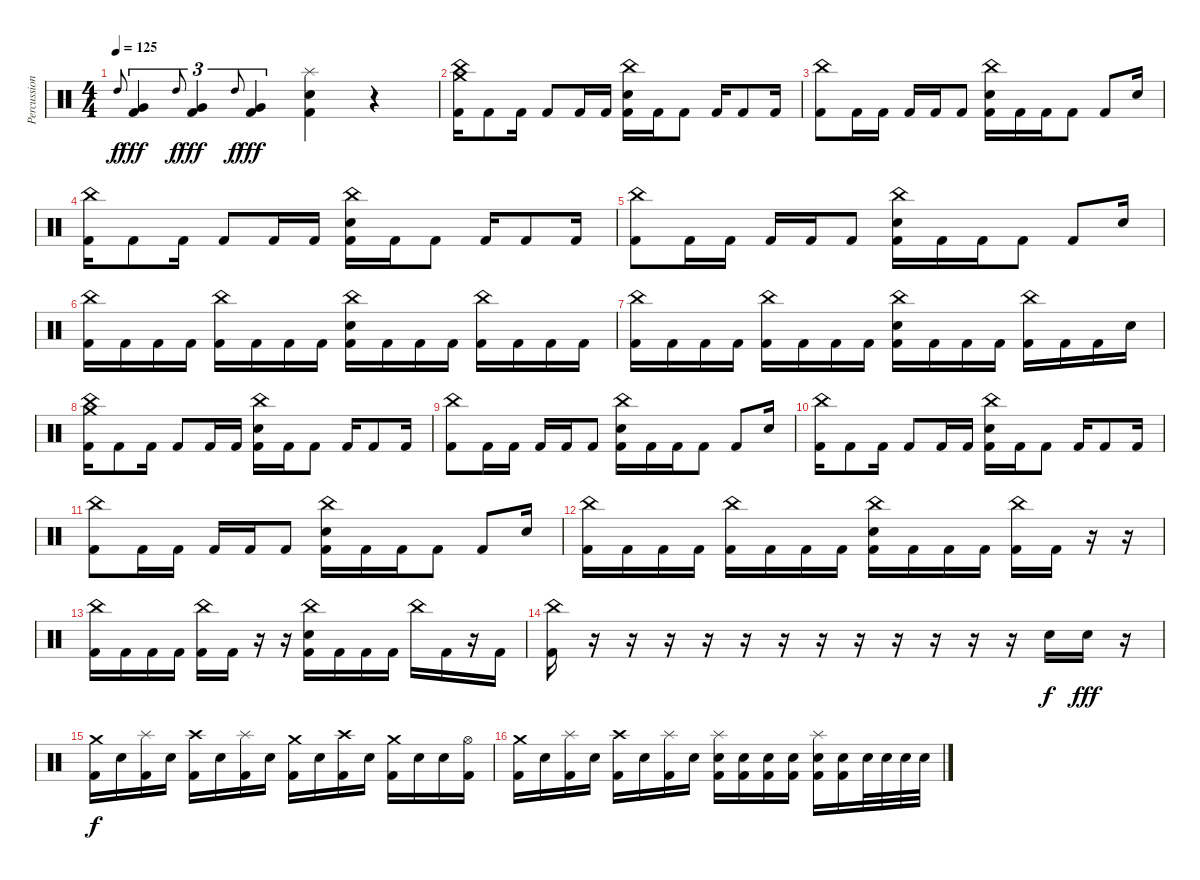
\track ("Percussion" "Percussion") {instrument percussion}
\staff {score}
\articulation defaults
\ts (4 4)
\tempo 125
\clef neutral
\ks c "High Tom (hit)"{x}.8{gr onbeat dy f}
("Very Low Tom (hit)" "Kick (hit) 2").4{tu (3 2) dy fff} "High Tom (hit)"{x}.8{gr onbeat dy f} ("Very Low Tom (hit)" "Kick (hit) 2").4{tu (3 2) dy fff} "High Tom (hit)"{x}.8{gr onbeat dy f} ("Very Low Tom (hit)" "Kick (hit) 2").4{tu (3 2) dy fff} ("Electric Snare (hit)" "Splash (hit)" "Kick (hit) 2").4 r.4 |
("China (hit)" "Crash medium (hit)" "Kick (hit) 2").16 "Kick (hit) 2".8 "Kick (hit) 2".16 "Kick (hit) 2".8 "Kick (hit) 2".16 "Kick (hit) 2".16 ("China (hit)" "Electric Snare (hit)" "Kick (hit) 2").16 "Kick (hit) 2".16 "Kick (hit) 2".8 "Kick (hit) 2".16 "Kick (hit) 2".8 "Kick (hit) 2".16 |
("China (hit)" "Kick (hit) 2").8 "Kick (hit) 2".16 "Kick (hit) 2".16 "Kick (hit) 2".16 "Kick (hit) 2".16 "Kick (hit) 2".8 ("China (hit)" "Electric Snare (hit)" "Kick (hit) 2").16 "Kick (hit) 2".16 "Kick (hit) 2".16 "Kick (hit) 2".8 "Kick (hit) 2".8 "Electric Snare (hit)".16 |
("China (hit)" "Kick (hit) 2").16 "Kick (hit) 2".8 "Kick (hit) 2".16 "Kick (hit) 2".8 "Kick (hit) 2".16 "Kick (hit) 2".16 ("China (hit)" "Electric Snare (hit)" "Kick (hit) 2").16 "Kick (hit) 2".16 "Kick (hit) 2".8 "Kick (hit) 2".16 "Kick (hit) 2".8 "Kick (hit) 2".16 |
("China (hit)" "Kick (hit) 2").8 "Kick (hit) 2".16 "Kick (hit) 2".16 "Kick (hit) 2".16 "Kick (hit) 2".16 "Kick (hit) 2".8 ("China (hit)" "Electric Snare (hit)" "Kick (hit) 2").16 "Kick (hit) 2".16 "Kick (hit) 2".16 "Kick (hit) 2".8 "Kick (hit) 2".8 "Electric Snare (hit)".16 |
("China (hit)" "Kick (hit) 2").16 "Kick (hit) 2".16 "Kick (hit) 2".16 "Kick (hit) 2".16 ("China (hit)" "Kick (hit) 2").16 "Kick (hit) 2".16 "Kick (hit) 2".16 "Kick (hit) 2".16 ("China (hit)" "Electric Snare (hit)" "Kick (hit) 2").16 "Kick (hit) 2".16 "Kick (hit) 2".16 "Kick (hit) 2".16 ("China (hit)" "Kick (hit) 2").16 "Kick (hit) 2".16 "Kick (hit) 2".16 "Kick (hit) 2".16 |
("China (hit)" "Kick (hit) 2").16 "Kick (hit) 2".16 "Kick (hit) 2".16 "Kick (hit) 2".16 ("China (hit)" "Kick (hit) 2").16 "Kick (hit) 2".16 "Kick (hit) 2".16 "Kick (hit) 2".16 ("China (hit)" "Electric Snare (hit)" "Kick (hit) 2").16 "Kick (hit) 2".16 "Kick (hit) 2".16 "Kick (hit) 2".16 ("China (hit)" "Kick (hit) 2").16 "Kick (hit) 2".16 "Kick (hit) 2".16 "Electric Snare (hit)".16 |
("China (hit)" "Crash medium (hit)" "Kick (hit) 2").16 "Kick (hit) 2".8 "Kick (hit) 2".16 "Kick (hit) 2".8 "Kick (hit) 2".16 "Kick (hit) 2".16 ("China (hit)" "Electric Snare (hit)" "Kick (hit) 2").16 "Kick (hit) 2".16 "Kick (hit) 2".8 "Kick (hit) 2".16 "Kick (hit) 2".8 "Kick (hit) 2".16 |
("China (hit)" "Kick (hit) 2").8 "Kick (hit) 2".16 "Kick (hit) 2".16 "Kick (hit) 2".16 "Kick (hit) 2".16 "Kick (hit) 2".8 ("China (hit)" "Electric Snare (hit)" "Kick (hit) 2").16 "Kick (hit) 2".16 "Kick (hit) 2".16 "Kick (hit) 2".8 "Kick (hit) 2".8 "Electric Snare (hit)".16 |
("China (hit)" "Kick (hit) 2").16 "Kick (hit) 2".8 "Kick (hit) 2".16 "Kick (hit) 2".8 "Kick (hit) 2".16 "Kick (hit) 2".16 ("China (hit)" "Electric Snare (hit)" "Kick (hit) 2").16 "Kick (hit) 2".16 "Kick (hit) 2".8 "Kick (hit) 2".16 "Kick (hit) 2".8 "Kick (hit) 2".16 |
("China (hit)" "Kick (hit) 2").8 "Kick (hit) 2".16 "Kick (hit) 2".16 "Kick (hit) 2".16 "Kick (hit) 2".16 "Kick (hit) 2".8 ("China (hit)" "Electric Snare (hit)" "Kick (hit) 2").16 "Kick (hit) 2".16 "Kick (hit) 2".16 "Kick (hit) 2".8 "Kick (hit) 2".8 "Electric Snare (hit)".16 |
("China (hit)" "Kick (hit) 2").16 "Kick (hit) 2".16 "Kick (hit) 2".16 "Kick (hit) 2".16 ("China (hit)" "Kick (hit) 2").16 "Kick (hit) 2".16 "Kick (hit) 2".16 "Kick (hit) 2".16 ("China (hit)" "Electric Snare (hit)" "Kick (hit) 2").16 "Kick (hit) 2".16 "Kick (hit) 2".16 "Kick (hit) 2".16 ("China (hit)" "Kick (hit) 2").16 "Kick (hit) 2".16 r.16 r.16 |
("China (hit)" "Kick (hit) 2").16 "Kick (hit) 2".16 "Kick (hit) 2".16 "Kick (hit) 2".16 ("China (hit)" "Kick (hit) 2").16 "Kick (hit) 2".16 r.16 r.16 ("China (hit)" "Electric Snare (hit)" "Kick (hit) 2").16 "Kick (hit) 2".16 "Kick (hit) 2".16 "Kick (hit) 2".16 "China (hit)".16 "Kick (hit) 2".16 r.16 "Kick (hit) 2".16 |
("China (hit)" "Kick (hit) 2").16 r.16 r.16 r.16 r.16 r.16 r.16 r.16 r.16 r.16 r.16 r.16 r.16 "Electric Snare (hit)".16{dy f} "Electric Snare (hit)".16{dy fff} r.16 |
("Crash medium (hit)" "Kick (hit) 2").16{dy f} "Electric Snare (hit)".16 ("Splash (hit)" "Kick (hit) 2").16 "Electric Snare (hit)".16 ("Crash high (hit)" "Kick (hit) 2").16 "Electric Snare (hit)".16 ("Splash (hit)" "Kick (hit) 2").16 "Electric Snare (hit)".16 ("Crash medium (hit)" "Kick (hit) 2").16 "Electric Snare (hit)".16 ("Crash high (hit)" "Kick (hit) 2").16 "Electric Snare (hit)".16 ("Crash medium (hit)" "Kick (hit) 2").16 "Electric Snare (hit)".16 "Electric Snare (hit)".16 ("Hi-Hat (open)" "Kick (hit) 2").16 |
("Crash medium (hit)" "Kick (hit) 2").16 "Electric Snare (hit)".16 ("Splash (hit)" "Kick (hit) 2").16 "Electric Snare (hit)".16 ("Crash high (hit)" "Kick (hit) 2").16 "Electric Snare (hit)".16 ("Splash (hit)" "Kick (hit) 2").16 "Electric Snare (hit)".16 ("Splash (hit)" "Electric Snare (hit)" "Kick (hit) 2").16 ("Electric Snare (hit)" "Kick (hit) 2").16 ("Electric Snare (hit)" "Kick (hit) 2").16 ("Electric Snare (hit)" "Kick (hit) 2").16 ("Splash (hit)" "Electric Snare (hit)" "Kick (hit) 2").16 ("Electric Snare (hit)" "Kick (hit) 2").16 "Electric Snare (hit)".32 "Electric Snare (hit)".32 "Electric Snare (hit)".32 "Electric Snare (hit)".32
